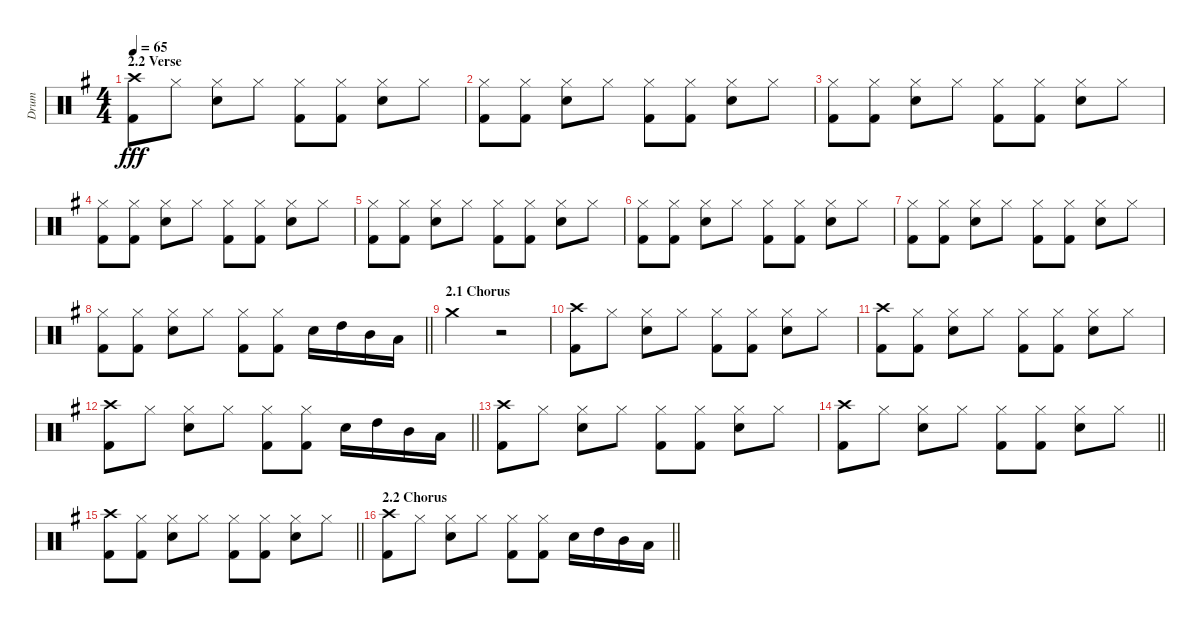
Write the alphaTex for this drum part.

\track ("Drum" "Drum") {instrument percussion}
\staff {score}
\articulation defaults
\ts (4 4)
\section ("" "2.2 Verse")
\tempo 65
\clef neutral
\ks eminor
("Crash high (hit)" "Kick (hit) 2").8{dy fff} "Hi-Hat (closed)".8 ("Electric Snare (hit)" "Hi-Hat (closed)").8 "Hi-Hat (closed)".8 ("Kick (hit) 2" "Hi-Hat (closed)").8 ("Kick (hit) 2" "Hi-Hat (closed)").8 ("Electric Snare (hit)" "Hi-Hat (closed)").8 "Hi-Hat (closed)".8 |
("Hi-Hat (closed)" "Kick (hit) 2").8 ("Kick (hit) 2" "Hi-Hat (closed)").8 ("Electric Snare (hit)" "Hi-Hat (closed)").8 "Hi-Hat (closed)".8 ("Kick (hit) 2" "Hi-Hat (closed)").8 ("Kick (hit) 2" "Hi-Hat (closed)").8 ("Electric Snare (hit)" "Hi-Hat (closed)").8 "Hi-Hat (closed)".8 |
("Hi-Hat (closed)" "Kick (hit) 2").8 ("Kick (hit) 2" "Hi-Hat (closed)").8 ("Electric Snare (hit)" "Hi-Hat (closed)").8 "Hi-Hat (closed)".8 ("Kick (hit) 2" "Hi-Hat (closed)").8 ("Kick (hit) 2" "Hi-Hat (closed)").8 ("Electric Snare (hit)" "Hi-Hat (closed)").8 "Hi-Hat (closed)".8 |
("Hi-Hat (closed)" "Kick (hit) 2").8 ("Kick (hit) 2" "Hi-Hat (closed)").8 ("Electric Snare (hit)" "Hi-Hat (closed)").8 "Hi-Hat (closed)".8 ("Kick (hit) 2" "Hi-Hat (closed)").8 ("Kick (hit) 2" "Hi-Hat (closed)").8 ("Electric Snare (hit)" "Hi-Hat (closed)").8 "Hi-Hat (closed)".8 |
("Hi-Hat (closed)" "Kick (hit) 2").8 ("Kick (hit) 2" "Hi-Hat (closed)").8 ("Electric Snare (hit)" "Hi-Hat (closed)").8 "Hi-Hat (closed)".8 ("Kick (hit) 2" "Hi-Hat (closed)").8 ("Kick (hit) 2" "Hi-Hat (closed)").8 ("Electric Snare (hit)" "Hi-Hat (closed)").8 "Hi-Hat (closed)".8 |
("Hi-Hat (closed)" "Kick (hit) 2").8 ("Kick (hit) 2" "Hi-Hat (closed)").8 ("Electric Snare (hit)" "Hi-Hat (closed)").8 "Hi-Hat (closed)".8 ("Kick (hit) 2" "Hi-Hat (closed)").8 ("Kick (hit) 2" "Hi-Hat (closed)").8 ("Electric Snare (hit)" "Hi-Hat (closed)").8 "Hi-Hat (closed)".8 |
("Hi-Hat (closed)" "Kick (hit) 2").8 ("Kick (hit) 2" "Hi-Hat (closed)").8 ("Electric Snare (hit)" "Hi-Hat (closed)").8 "Hi-Hat (closed)".8 ("Kick (hit) 2" "Hi-Hat (closed)").8 ("Kick (hit) 2" "Hi-Hat (closed)").8 ("Electric Snare (hit)" "Hi-Hat (closed)").8 "Hi-Hat (closed)".8 |
\barLineRight lightlight
("Hi-Hat (closed)" "Kick (hit) 2").8 ("Kick (hit) 2" "Hi-Hat (closed)").8 ("Electric Snare (hit)" "Hi-Hat (closed)").8 "Hi-Hat (closed)".8 ("Hi-Hat (closed)" "Kick (hit) 2").8 ("Hi-Hat (closed)" "Kick (hit) 2").8 "Electric Snare (hit)".16 "High Tom (hit)".16 "Mid Tom (hit)".16 "Low Tom (hit)".16 |
\section ("" "2.1 Chorus")
"Crash medium (hit)".2 r.2 |
("Crash high (hit)" "Kick (hit) 2").8 "Hi-Hat (closed)".8 ("Electric Snare (hit)" "Hi-Hat (closed)").8 "Hi-Hat (closed)".8 ("Kick (hit) 2" "Hi-Hat (closed)").8 ("Kick (hit) 2" "Hi-Hat (closed)").8 ("Electric Snare (hit)" "Hi-Hat (closed)").8 "Hi-Hat (closed)".8 |
("Crash high (hit)" "Kick (hit) 2").8 ("Kick (hit) 2" "Hi-Hat (closed)").8 ("Electric Snare (hit)" "Hi-Hat (closed)").8 "Hi-Hat (closed)".8 ("Kick (hit) 2" "Hi-Hat (closed)").8 ("Kick (hit) 2" "Hi-Hat (closed)").8 ("Electric Snare (hit)" "Hi-Hat (closed)").8 "Hi-Hat (closed)".8 |
\barLineRight lightlight
("Crash high (hit)" "Kick (hit) 2").8 "Hi-Hat (closed)".8 ("Electric Snare (hit)" "Hi-Hat (closed)").8 "Hi-Hat (closed)".8 ("Kick (hit) 2" "Hi-Hat (closed)").8 ("Kick (hit) 2" "Hi-Hat (closed)").8 "Electric Snare (hit)".16 "High Tom (hit)".16 "Mid Tom (hit)".16 "Low Tom (hit)".16 |
("Crash high (hit)" "Kick (hit) 2").8 "Hi-Hat (closed)".8 ("Electric Snare (hit)" "Hi-Hat (closed)").8 "Hi-Hat (closed)".8 ("Kick (hit) 2" "Hi-Hat (closed)").8 ("Kick (hit) 2" "Hi-Hat (closed)").8 ("Electric Snare (hit)" "Hi-Hat (closed)").8 "Hi-Hat (closed)".8 |
\barLineRight lightlight
("Crash high (hit)" "Kick (hit) 2").8 "Hi-Hat (closed)".8 ("Electric Snare (hit)" "Hi-Hat (closed)").8 "Hi-Hat (closed)".8 ("Kick (hit) 2" "Hi-Hat (closed)").8 ("Kick (hit) 2" "Hi-Hat (closed)").8 ("Electric Snare (hit)" "Hi-Hat (closed)").8 "Hi-Hat (closed)".8 |
\barLineRight lightlight
("Crash high (hit)" "Kick (hit) 2").8 ("Kick (hit) 2" "Hi-Hat (closed)").8 ("Electric Snare (hit)" "Hi-Hat (closed)").8 "Hi-Hat (closed)".8 ("Kick (hit) 2" "Hi-Hat (closed)").8 ("Kick (hit) 2" "Hi-Hat (closed)").8 ("Electric Snare (hit)" "Hi-Hat (closed)").8 "Hi-Hat (closed)".8 |
\section ("" "2.2 Chorus")
\barLineRight lightlight
("Crash high (hit)" "Kick (hit) 2").8 "Hi-Hat (closed)".8 ("Electric Snare (hit)" "Hi-Hat (closed)").8 "Hi-Hat (closed)".8 ("Kick (hit) 2" "Hi-Hat (closed)").8 ("Kick (hit) 2" "Hi-Hat (closed)").8 "Electric Snare (hit)".16 "High Tom (hit)".16 "Mid Tom (hit)".16 "Low Tom (hit)".16
